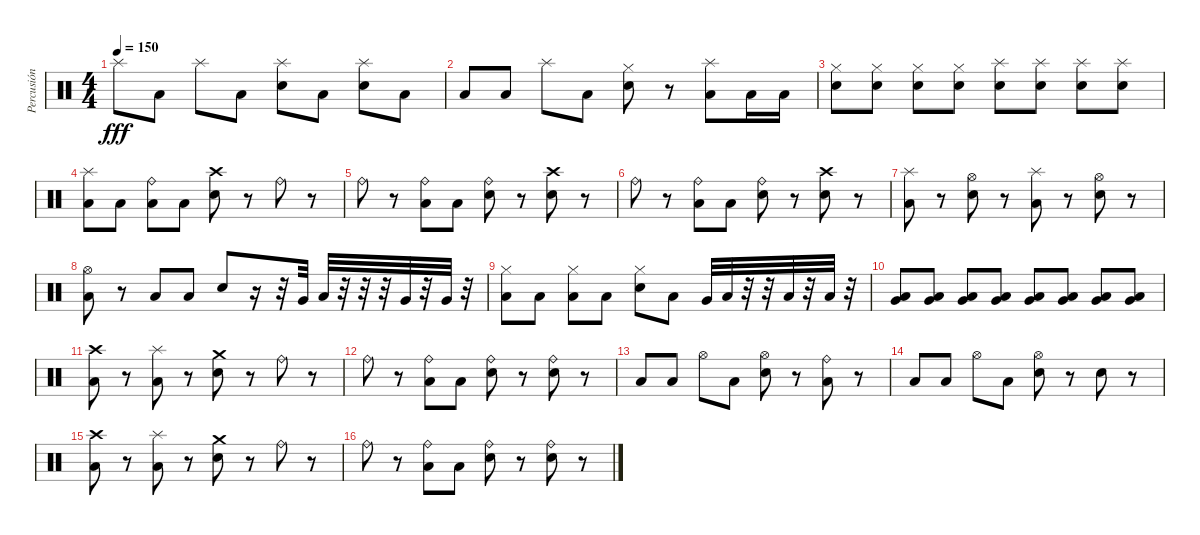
\track ("Percusión" "Percusión") {instrument percussion}
\staff {score}
\articulation defaults
\ts (4 4)
\tempo 150
\clef neutral
\ks c "Splash (hit)".8{dy fff} "Low Tom (hit)".8 "Splash (hit)".8 "Low Tom (hit)".8
("Splash (hit)" "Snare (hit) 2").8 "Low Tom (hit)".8 ("Splash (hit)" "Snare (hit) 2").8 "Low Tom (hit)".8 |
"Low Tom (hit)".8 "Low Tom (hit)".8 "Splash (hit)".8 "Low Tom (hit)".8 ("Hi-Hat (closed)" "Snare (hit) 2").8 r.8 ("Splash (hit)" "Low Tom (hit)").8 "Low Tom (hit)".16 "Low Tom (hit)".16 |
("Hi-Hat (closed)" "Snare (hit) 2").8 ("Hi-Hat (closed)" "Snare (hit) 2").8 ("Hi-Hat (closed)" "Snare (hit) 2").8 ("Hi-Hat (closed)" "Snare (hit) 2").8 ("Splash (hit)" "Snare (hit) 2").8 ("Splash (hit)" "Snare (hit) 2").8 ("Splash (hit)" "Snare (hit) 2").8 ("Splash (hit)" "Snare (hit) 2").8 |
("Splash (hit)" "Low Tom (hit)").8 "Low Tom (hit)".8 ("Ride (bell)" "Low Tom (hit)").8 "Low Tom (hit)".8 ("Crash high (hit)" "Snare (hit) 2").8 r.8 "Ride (bell)".8 r.8 |
"Ride (bell)".8 r.8 ("Ride (bell)" "Low Tom (hit)").8 "Low Tom (hit)".8 ("Ride (bell)" "Snare (hit) 2").8 r.8 ("Crash high (hit)" "Snare (hit) 2").8 r.8 |
"Ride (bell)".8 r.8 ("Ride (bell)" "Low Tom (hit)").8 "Low Tom (hit)".8 ("Ride (bell)" "Snare (hit) 2").8 r.8 ("Crash high (hit)" "Snare (hit) 2").8 r.8 |
("Splash (hit)" "Low Tom (hit)").8 r.8 ("Hi-Hat (open)" "Snare (hit) 2").8 r.8 ("Splash (hit)" "Low Tom (hit)").8 r.8 ("Hi-Hat (open)" "Snare (hit) 2").8 r.8 |
("Hi-Hat (open)" "Low Tom (hit)").8 r.8 "Low Tom (hit)".8 "Low Tom (hit)".8 "Snare (hit) 2".8 r.16 r.32 "Very Low Tom (hit)".32 "Low Floor Tom (hit)".32 r.32 r.32 r.32 "Very Low Tom (hit)".32 r.32 "Very Low Tom (hit)".32 r.32 |
("Hi-Hat (closed)" "Low Tom (hit)").8 "Low Tom (hit)".8 ("Hi-Hat (closed)" "Low Tom (hit)").8 "Low Tom (hit)".8 ("Hi-Hat (closed)" "Snare (hit) 2").8 "Low Tom (hit)".8 "Very Low Tom (hit)".32 "Low Floor Tom (hit)".32 r.32 r.32 "Low Tom (hit)".32 r.32 "Low Tom (hit)".32 r.32 |
("Very Low Tom (hit)" "Low Floor Tom (hit)").8 ("Very Low Tom (hit)" "Low Floor Tom (hit)").8 ("Very Low Tom (hit)" "Low Floor Tom (hit)").8 ("Low Floor Tom (hit)" "Very Low Tom (hit)").8 ("Very Low Tom (hit)" "Low Floor Tom (hit)").8 ("Very Low Tom (hit)" "Low Floor Tom (hit)").8 ("Low Floor Tom (hit)" "Very Low Tom (hit)").8 ("Very Low Tom (hit)" "Low Floor Tom (hit)").8 |
("Crash high (hit)" "Low Tom (hit)").8 r.8 ("Splash (hit)" "Low Tom (hit)").8 r.8 ("Crash medium (hit)" "Snare (hit) 2").8 r.8 "Ride (bell)".8 r.8 |
"Ride (bell)".8 r.8 ("Ride (bell)" "Low Tom (hit)").8 "Low Tom (hit)".8 ("Ride (bell)" "Snare (hit) 2").8 r.8 ("Ride (bell)" "Snare (hit) 2").8 r.8 |
"Low Tom (hit)".8 "Low Tom (hit)".8 "Hi-Hat (open)".8 "Low Tom (hit)".8 ("Hi-Hat (open)" "Snare (hit) 2").8 r.8 ("Ride (bell)" "Low Tom (hit)").8 r.8 |
"Low Tom (hit)".8 "Low Tom (hit)".8 "Hi-Hat (open)".8 "Low Tom (hit)".8 ("Hi-Hat (open)" "Snare (hit) 2").8 r.8 "Snare (hit) 2".8 r.8 |
("Crash high (hit)" "Low Tom (hit)").8 r.8 ("Splash (hit)" "Low Tom (hit)").8 r.8 ("Crash medium (hit)" "Snare (hit) 2").8 r.8 "Ride (bell)".8 r.8 |
"Ride (bell)".8 r.8 ("Ride (bell)" "Low Tom (hit)").8 "Low Tom (hit)".8 ("Ride (bell)" "Snare (hit) 2").8 r.8 ("Ride (bell)" "Snare (hit) 2").8 r.8
